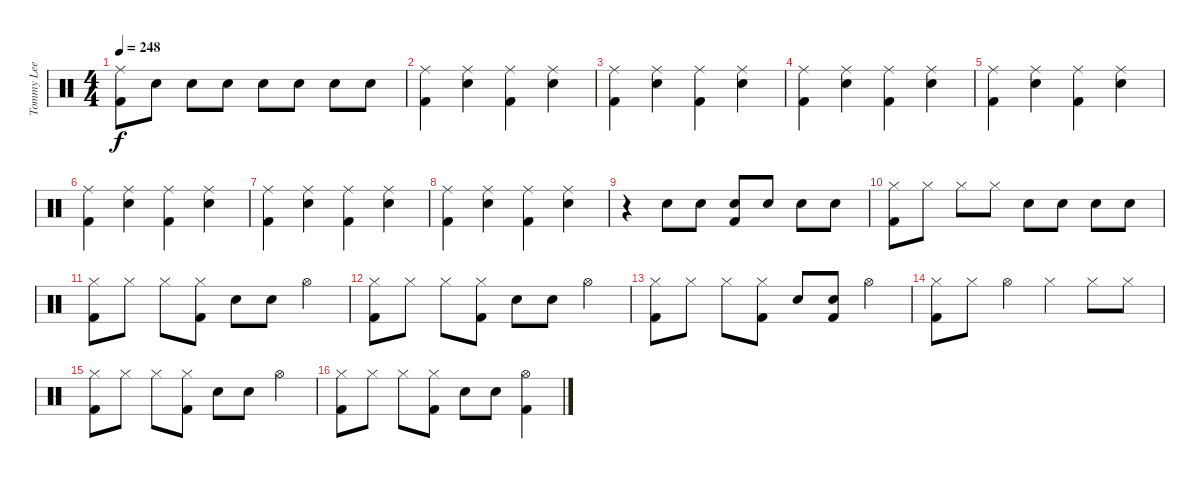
\track ("Tommy Lee" "Tommy Lee") {instrument percussion}
\staff {score}
\articulation defaults
\ts (4 4)
\tempo 248
\clef neutral
\ks c
("Ride (middle)" "Kick (hit) 2").8{dy f} "Electric Snare (hit)".8 "Electric Snare (hit)".8 "Electric Snare (hit)".8 "Electric Snare (hit)".8 "Electric Snare (hit)".8 "Electric Snare (hit)".8 "Electric Snare (hit)".8 |
("Ride (middle)" "Kick (hit) 2").4 ("Ride (middle)" "Electric Snare (hit)").4 ("Ride (middle)" "Kick (hit) 2").4 ("Ride (middle)" "Electric Snare (hit)").4 |
("Ride (middle)" "Kick (hit) 2").4 ("Ride (middle)" "Electric Snare (hit)").4 ("Ride (middle)" "Kick (hit) 2").4 ("Ride (middle)" "Electric Snare (hit)").4 |
("Ride (middle)" "Kick (hit) 2").4 ("Ride (middle)" "Electric Snare (hit)").4 ("Ride (middle)" "Kick (hit) 2").4 ("Ride (middle)" "Electric Snare (hit)").4 |
("Ride (middle)" "Kick (hit) 2").4 ("Ride (middle)" "Electric Snare (hit)").4 ("Ride (middle)" "Kick (hit) 2").4 ("Ride (middle)" "Electric Snare (hit)").4 |
("Ride (middle)" "Kick (hit) 2").4 ("Ride (middle)" "Electric Snare (hit)").4 ("Ride (middle)" "Kick (hit) 2").4 ("Ride (middle)" "Electric Snare (hit)").4 |
("Ride (middle)" "Kick (hit) 2").4 ("Ride (middle)" "Electric Snare (hit)").4 ("Ride (middle)" "Kick (hit) 2").4 ("Ride (middle)" "Electric Snare (hit)").4 |
("Ride (middle)" "Kick (hit) 2").4 ("Ride (middle)" "Electric Snare (hit)").4 ("Ride (middle)" "Kick (hit) 2").4 ("Ride (middle)" "Electric Snare (hit)").4 |
r.4 "Electric Snare (hit)".8 "Electric Snare (hit)".8 ("Electric Snare (hit)" "Kick (hit) 2").8 "Electric Snare (hit)".8 "Electric Snare (hit)".8 "Electric Snare (hit)".8 |
("Hi-Hat (closed)" "Kick (hit) 2").8 "Hi-Hat (closed)".8 "Hi-Hat (closed)".8 "Hi-Hat (closed)".8 "Electric Snare (hit)".8 "Electric Snare (hit)".8 "Electric Snare (hit)".8 "Electric Snare (hit)".8 |
("Hi-Hat (closed)" "Kick (hit) 2").8 "Hi-Hat (closed)".8 "Hi-Hat (closed)".8 ("Hi-Hat (closed)" "Kick (hit) 2").8 "Electric Snare (hit)".8 "Electric Snare (hit)".8 "Hi-Hat (open)".4 |
("Hi-Hat (closed)" "Kick (hit) 2").8 "Hi-Hat (closed)".8 "Hi-Hat (closed)".8 ("Hi-Hat (closed)" "Kick (hit) 2").8 "Electric Snare (hit)".8 "Electric Snare (hit)".8 "Hi-Hat (open)".4 |
("Hi-Hat (closed)" "Kick (hit) 2").8 "Hi-Hat (closed)".8 "Hi-Hat (closed)".8 ("Hi-Hat (closed)" "Kick (hit) 2").8 "Electric Snare (hit)".8 ("Electric Snare (hit)" "Kick (hit) 2").8 "Hi-Hat (open)".4 |
("Hi-Hat (closed)" "Kick (hit) 2").8 "Hi-Hat (closed)".8 "Hi-Hat (open)".4 "Hi-Hat (closed)".4 "Hi-Hat (closed)".8 "Hi-Hat (closed)".8 |
("Hi-Hat (closed)" "Kick (hit) 2").8 "Hi-Hat (closed)".8 "Hi-Hat (closed)".8 ("Hi-Hat (closed)" "Kick (hit) 2").8 "Electric Snare (hit)".8 "Electric Snare (hit)".8 "Hi-Hat (open)".4 |
("Hi-Hat (closed)" "Kick (hit) 2").8 "Hi-Hat (closed)".8 "Hi-Hat (closed)".8 ("Hi-Hat (closed)" "Kick (hit) 2").8 "Electric Snare (hit)".8 "Electric Snare (hit)".8 ("Hi-Hat (open)" "Kick (hit) 2").4
